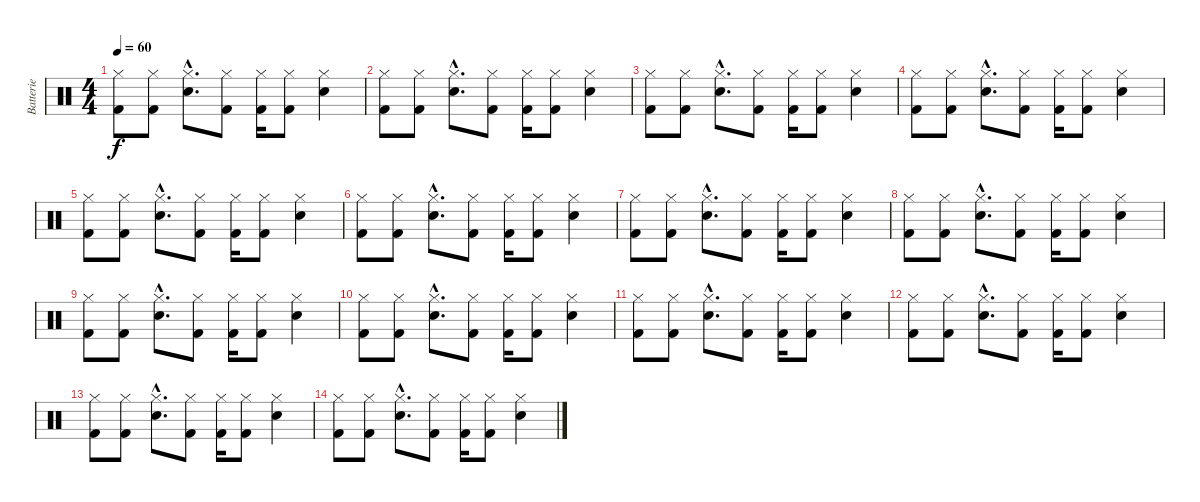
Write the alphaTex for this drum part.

\track ("Batterie" "Batterie") {instrument percussion}
\staff {score}
\articulation defaults
\ts (4 4)
\tempo 60
\clef neutral
\ks c
("Hi-Hat (closed)" "Kick (hit) 2").8{dy f} ("Hi-Hat (closed)" "Kick (hit) 2").8 ("Hi-Hat (closed)"{hac} "Snare (hit) 2"{hac}).8{d} ("Hi-Hat (closed)" "Kick (hit) 2").8 ("Hi-Hat (closed)" "Kick (hit) 2").16 ("Hi-Hat (closed)" "Kick (hit) 2").8 ("Hi-Hat (closed)" "Snare (hit) 2").4 |
("Hi-Hat (closed)" "Kick (hit) 2").8 ("Hi-Hat (closed)" "Kick (hit) 2").8 ("Hi-Hat (closed)"{hac} "Snare (hit) 2"{hac}).8{d} ("Hi-Hat (closed)" "Kick (hit) 2").8 ("Hi-Hat (closed)" "Kick (hit) 2").16 ("Hi-Hat (closed)" "Kick (hit) 2").8 ("Hi-Hat (closed)" "Snare (hit) 2").4 |
("Hi-Hat (closed)" "Kick (hit) 2").8 ("Hi-Hat (closed)" "Kick (hit) 2").8 ("Hi-Hat (closed)"{hac} "Snare (hit) 2"{hac}).8{d} ("Hi-Hat (closed)" "Kick (hit) 2").8 ("Hi-Hat (closed)" "Kick (hit) 2").16 ("Hi-Hat (closed)" "Kick (hit) 2").8 ("Hi-Hat (closed)" "Snare (hit) 2").4 |
("Hi-Hat (closed)" "Kick (hit) 2").8 ("Hi-Hat (closed)" "Kick (hit) 2").8 ("Hi-Hat (closed)"{hac} "Snare (hit) 2"{hac}).8{d} ("Hi-Hat (closed)" "Kick (hit) 2").8 ("Hi-Hat (closed)" "Kick (hit) 2").16 ("Hi-Hat (closed)" "Kick (hit) 2").8 ("Hi-Hat (closed)" "Snare (hit) 2").4 |
("Hi-Hat (closed)" "Kick (hit) 2").8 ("Hi-Hat (closed)" "Kick (hit) 2").8 ("Hi-Hat (closed)"{hac} "Snare (hit) 2"{hac}).8{d} ("Hi-Hat (closed)" "Kick (hit) 2").8 ("Hi-Hat (closed)" "Kick (hit) 2").16 ("Hi-Hat (closed)" "Kick (hit) 2").8 ("Hi-Hat (closed)" "Snare (hit) 2").4 |
("Hi-Hat (closed)" "Kick (hit) 2").8 ("Hi-Hat (closed)" "Kick (hit) 2").8 ("Hi-Hat (closed)"{hac} "Snare (hit) 2"{hac}).8{d} ("Hi-Hat (closed)" "Kick (hit) 2").8 ("Hi-Hat (closed)" "Kick (hit) 2").16 ("Hi-Hat (closed)" "Kick (hit) 2").8 ("Hi-Hat (closed)" "Snare (hit) 2").4 |
("Hi-Hat (closed)" "Kick (hit) 2").8 ("Hi-Hat (closed)" "Kick (hit) 2").8 ("Hi-Hat (closed)"{hac} "Snare (hit) 2"{hac}).8{d} ("Hi-Hat (closed)" "Kick (hit) 2").8 ("Hi-Hat (closed)" "Kick (hit) 2").16 ("Hi-Hat (closed)" "Kick (hit) 2").8 ("Hi-Hat (closed)" "Snare (hit) 2").4 |
("Hi-Hat (closed)" "Kick (hit) 2").8 ("Hi-Hat (closed)" "Kick (hit) 2").8 ("Hi-Hat (closed)"{hac} "Snare (hit) 2"{hac}).8{d} ("Hi-Hat (closed)" "Kick (hit) 2").8 ("Hi-Hat (closed)" "Kick (hit) 2").16 ("Hi-Hat (closed)" "Kick (hit) 2").8 ("Hi-Hat (closed)" "Snare (hit) 2").4 |
("Hi-Hat (closed)" "Kick (hit) 2").8 ("Hi-Hat (closed)" "Kick (hit) 2").8 ("Hi-Hat (closed)"{hac} "Snare (hit) 2"{hac}).8{d} ("Hi-Hat (closed)" "Kick (hit) 2").8 ("Hi-Hat (closed)" "Kick (hit) 2").16 ("Hi-Hat (closed)" "Kick (hit) 2").8 ("Hi-Hat (closed)" "Snare (hit) 2").4 |
("Hi-Hat (closed)" "Kick (hit) 2").8 ("Hi-Hat (closed)" "Kick (hit) 2").8 ("Hi-Hat (closed)"{hac} "Snare (hit) 2"{hac}).8{d} ("Hi-Hat (closed)" "Kick (hit) 2").8 ("Hi-Hat (closed)" "Kick (hit) 2").16 ("Hi-Hat (closed)" "Kick (hit) 2").8 ("Hi-Hat (closed)" "Snare (hit) 2").4 |
("Hi-Hat (closed)" "Kick (hit) 2").8 ("Hi-Hat (closed)" "Kick (hit) 2").8 ("Hi-Hat (closed)"{hac} "Snare (hit) 2"{hac}).8{d} ("Hi-Hat (closed)" "Kick (hit) 2").8 ("Hi-Hat (closed)" "Kick (hit) 2").16 ("Hi-Hat (closed)" "Kick (hit) 2").8 ("Hi-Hat (closed)" "Snare (hit) 2").4 |
("Hi-Hat (closed)" "Kick (hit) 2").8 ("Hi-Hat (closed)" "Kick (hit) 2").8 ("Hi-Hat (closed)"{hac} "Snare (hit) 2"{hac}).8{d} ("Hi-Hat (closed)" "Kick (hit) 2").8 ("Hi-Hat (closed)" "Kick (hit) 2").16 ("Hi-Hat (closed)" "Kick (hit) 2").8 ("Hi-Hat (closed)" "Snare (hit) 2").4 |
("Hi-Hat (closed)" "Kick (hit) 2").8 ("Hi-Hat (closed)" "Kick (hit) 2").8 ("Hi-Hat (closed)"{hac} "Snare (hit) 2"{hac}).8{d} ("Hi-Hat (closed)" "Kick (hit) 2").8 ("Hi-Hat (closed)" "Kick (hit) 2").16 ("Hi-Hat (closed)" "Kick (hit) 2").8 ("Hi-Hat (closed)" "Snare (hit) 2").4 |
("Hi-Hat (closed)" "Kick (hit) 2").8 ("Hi-Hat (closed)" "Kick (hit) 2").8 ("Hi-Hat (closed)"{hac} "Snare (hit) 2"{hac}).8{d} ("Hi-Hat (closed)" "Kick (hit) 2").8 ("Hi-Hat (closed)" "Kick (hit) 2").16 ("Hi-Hat (closed)" "Kick (hit) 2").8 ("Hi-Hat (closed)" "Snare (hit) 2").4
